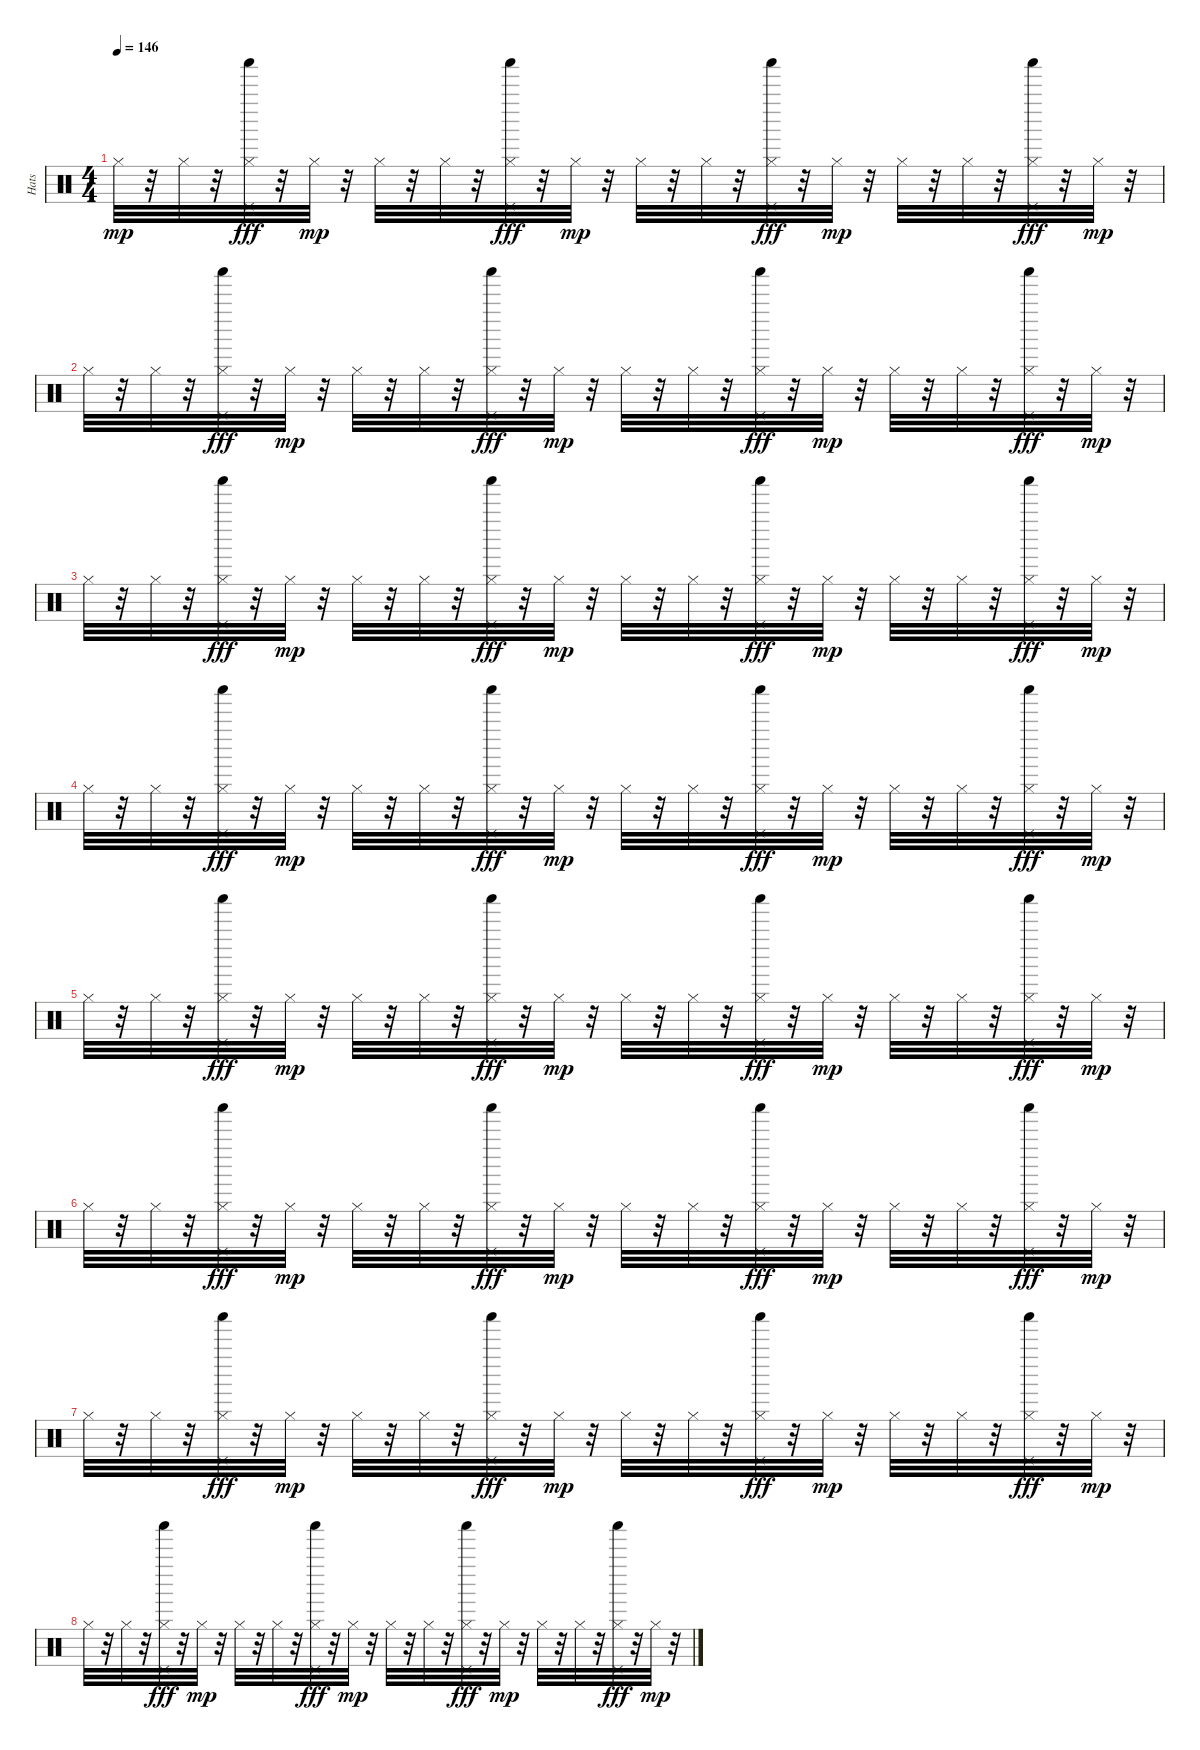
\track ("Hats" "Hats") {instrument percussion}
\staff {score}
\articulation defaults
\ts (4 4)
\tempo 146
\clef neutral
\ks c "Hi-Hat (closed)".32{dy mp}
r.32 "Hi-Hat (closed)".32 r.32 ("Hi-Hat (closed)" "Pedal Hi-Hat (hit)" "Shaker (hit)").32{dy fff} r.32 "Hi-Hat (closed)".32{dy mp} r.32 "Hi-Hat (closed)".32 r.32 "Hi-Hat (closed)".32 r.32 ("Hi-Hat (closed)" "Pedal Hi-Hat (hit)" "Shaker (hit)").32{dy fff} r.32 "Hi-Hat (closed)".32{dy mp} r.32 "Hi-Hat (closed)".32 r.32 "Hi-Hat (closed)".32 r.32 ("Hi-Hat (closed)" "Pedal Hi-Hat (hit)" "Shaker (hit)").32{dy fff} r.32 "Hi-Hat (closed)".32{dy mp} r.32 "Hi-Hat (closed)".32 r.32 "Hi-Hat (closed)".32 r.32 ("Hi-Hat (closed)" "Pedal Hi-Hat (hit)" "Shaker (hit)").32{dy fff} r.32 "Hi-Hat (closed)".32{dy mp} r.32 |
"Hi-Hat (closed)".32 r.32 "Hi-Hat (closed)".32 r.32 ("Hi-Hat (closed)" "Pedal Hi-Hat (hit)" "Shaker (hit)").32{dy fff} r.32 "Hi-Hat (closed)".32{dy mp} r.32 "Hi-Hat (closed)".32 r.32 "Hi-Hat (closed)".32 r.32 ("Hi-Hat (closed)" "Pedal Hi-Hat (hit)" "Shaker (hit)").32{dy fff} r.32 "Hi-Hat (closed)".32{dy mp} r.32 "Hi-Hat (closed)".32 r.32 "Hi-Hat (closed)".32 r.32 ("Hi-Hat (closed)" "Pedal Hi-Hat (hit)" "Shaker (hit)").32{dy fff} r.32 "Hi-Hat (closed)".32{dy mp} r.32 "Hi-Hat (closed)".32 r.32 "Hi-Hat (closed)".32 r.32 ("Hi-Hat (closed)" "Pedal Hi-Hat (hit)" "Shaker (hit)").32{dy fff} r.32 "Hi-Hat (closed)".32{dy mp} r.32 |
"Hi-Hat (closed)".32 r.32 "Hi-Hat (closed)".32 r.32 ("Hi-Hat (closed)" "Pedal Hi-Hat (hit)" "Shaker (hit)").32{dy fff} r.32 "Hi-Hat (closed)".32{dy mp} r.32 "Hi-Hat (closed)".32 r.32 "Hi-Hat (closed)".32 r.32 ("Hi-Hat (closed)" "Pedal Hi-Hat (hit)" "Shaker (hit)").32{dy fff} r.32 "Hi-Hat (closed)".32{dy mp} r.32 "Hi-Hat (closed)".32 r.32 "Hi-Hat (closed)".32 r.32 ("Hi-Hat (closed)" "Pedal Hi-Hat (hit)" "Shaker (hit)").32{dy fff} r.32 "Hi-Hat (closed)".32{dy mp} r.32 "Hi-Hat (closed)".32 r.32 "Hi-Hat (closed)".32 r.32 ("Hi-Hat (closed)" "Pedal Hi-Hat (hit)" "Shaker (hit)").32{dy fff} r.32 "Hi-Hat (closed)".32{dy mp} r.32 |
"Hi-Hat (closed)".32 r.32 "Hi-Hat (closed)".32 r.32 ("Hi-Hat (closed)" "Pedal Hi-Hat (hit)" "Shaker (hit)").32{dy fff} r.32 "Hi-Hat (closed)".32{dy mp} r.32 "Hi-Hat (closed)".32 r.32 "Hi-Hat (closed)".32 r.32 ("Hi-Hat (closed)" "Pedal Hi-Hat (hit)" "Shaker (hit)").32{dy fff} r.32 "Hi-Hat (closed)".32{dy mp} r.32 "Hi-Hat (closed)".32 r.32 "Hi-Hat (closed)".32 r.32 ("Hi-Hat (closed)" "Pedal Hi-Hat (hit)" "Shaker (hit)").32{dy fff} r.32 "Hi-Hat (closed)".32{dy mp} r.32 "Hi-Hat (closed)".32 r.32 "Hi-Hat (closed)".32 r.32 ("Hi-Hat (closed)" "Pedal Hi-Hat (hit)" "Shaker (hit)").32{dy fff} r.32 "Hi-Hat (closed)".32{dy mp} r.32 |
"Hi-Hat (closed)".32 r.32 "Hi-Hat (closed)".32 r.32 ("Hi-Hat (closed)" "Pedal Hi-Hat (hit)" "Shaker (hit)").32{dy fff} r.32 "Hi-Hat (closed)".32{dy mp} r.32 "Hi-Hat (closed)".32 r.32 "Hi-Hat (closed)".32 r.32 ("Hi-Hat (closed)" "Pedal Hi-Hat (hit)" "Shaker (hit)").32{dy fff} r.32 "Hi-Hat (closed)".32{dy mp} r.32 "Hi-Hat (closed)".32 r.32 "Hi-Hat (closed)".32 r.32 ("Hi-Hat (closed)" "Pedal Hi-Hat (hit)" "Shaker (hit)").32{dy fff} r.32 "Hi-Hat (closed)".32{dy mp} r.32 "Hi-Hat (closed)".32 r.32 "Hi-Hat (closed)".32 r.32 ("Hi-Hat (closed)" "Pedal Hi-Hat (hit)" "Shaker (hit)").32{dy fff} r.32 "Hi-Hat (closed)".32{dy mp} r.32 |
"Hi-Hat (closed)".32 r.32 "Hi-Hat (closed)".32 r.32 ("Hi-Hat (closed)" "Pedal Hi-Hat (hit)" "Shaker (hit)").32{dy fff} r.32 "Hi-Hat (closed)".32{dy mp} r.32 "Hi-Hat (closed)".32 r.32 "Hi-Hat (closed)".32 r.32 ("Hi-Hat (closed)" "Pedal Hi-Hat (hit)" "Shaker (hit)").32{dy fff} r.32 "Hi-Hat (closed)".32{dy mp} r.32 "Hi-Hat (closed)".32 r.32 "Hi-Hat (closed)".32 r.32 ("Hi-Hat (closed)" "Pedal Hi-Hat (hit)" "Shaker (hit)").32{dy fff} r.32 "Hi-Hat (closed)".32{dy mp} r.32 "Hi-Hat (closed)".32 r.32 "Hi-Hat (closed)".32 r.32 ("Hi-Hat (closed)" "Pedal Hi-Hat (hit)" "Shaker (hit)").32{dy fff} r.32 "Hi-Hat (closed)".32{dy mp} r.32 |
"Hi-Hat (closed)".32 r.32 "Hi-Hat (closed)".32 r.32 ("Hi-Hat (closed)" "Pedal Hi-Hat (hit)" "Shaker (hit)").32{dy fff} r.32 "Hi-Hat (closed)".32{dy mp} r.32 "Hi-Hat (closed)".32 r.32 "Hi-Hat (closed)".32 r.32 ("Hi-Hat (closed)" "Pedal Hi-Hat (hit)" "Shaker (hit)").32{dy fff} r.32 "Hi-Hat (closed)".32{dy mp} r.32 "Hi-Hat (closed)".32 r.32 "Hi-Hat (closed)".32 r.32 ("Hi-Hat (closed)" "Pedal Hi-Hat (hit)" "Shaker (hit)").32{dy fff} r.32 "Hi-Hat (closed)".32{dy mp} r.32 "Hi-Hat (closed)".32 r.32 "Hi-Hat (closed)".32 r.32 ("Hi-Hat (closed)" "Pedal Hi-Hat (hit)" "Shaker (hit)").32{dy fff} r.32 "Hi-Hat (closed)".32{dy mp} r.32 |
"Hi-Hat (closed)".32 r.32 "Hi-Hat (closed)".32 r.32 ("Hi-Hat (closed)" "Pedal Hi-Hat (hit)" "Shaker (hit)").32{dy fff} r.32 "Hi-Hat (closed)".32{dy mp} r.32 "Hi-Hat (closed)".32 r.32 "Hi-Hat (closed)".32 r.32 ("Hi-Hat (closed)" "Pedal Hi-Hat (hit)" "Shaker (hit)").32{dy fff} r.32 "Hi-Hat (closed)".32{dy mp} r.32 "Hi-Hat (closed)".32 r.32 "Hi-Hat (closed)".32 r.32 ("Hi-Hat (closed)" "Pedal Hi-Hat (hit)" "Shaker (hit)").32{dy fff} r.32 "Hi-Hat (closed)".32{dy mp} r.32 "Hi-Hat (closed)".32 r.32 "Hi-Hat (closed)".32 r.32 ("Hi-Hat (closed)" "Pedal Hi-Hat (hit)" "Shaker (hit)").32{dy fff} r.32 "Hi-Hat (closed)".32{dy mp} r.32
